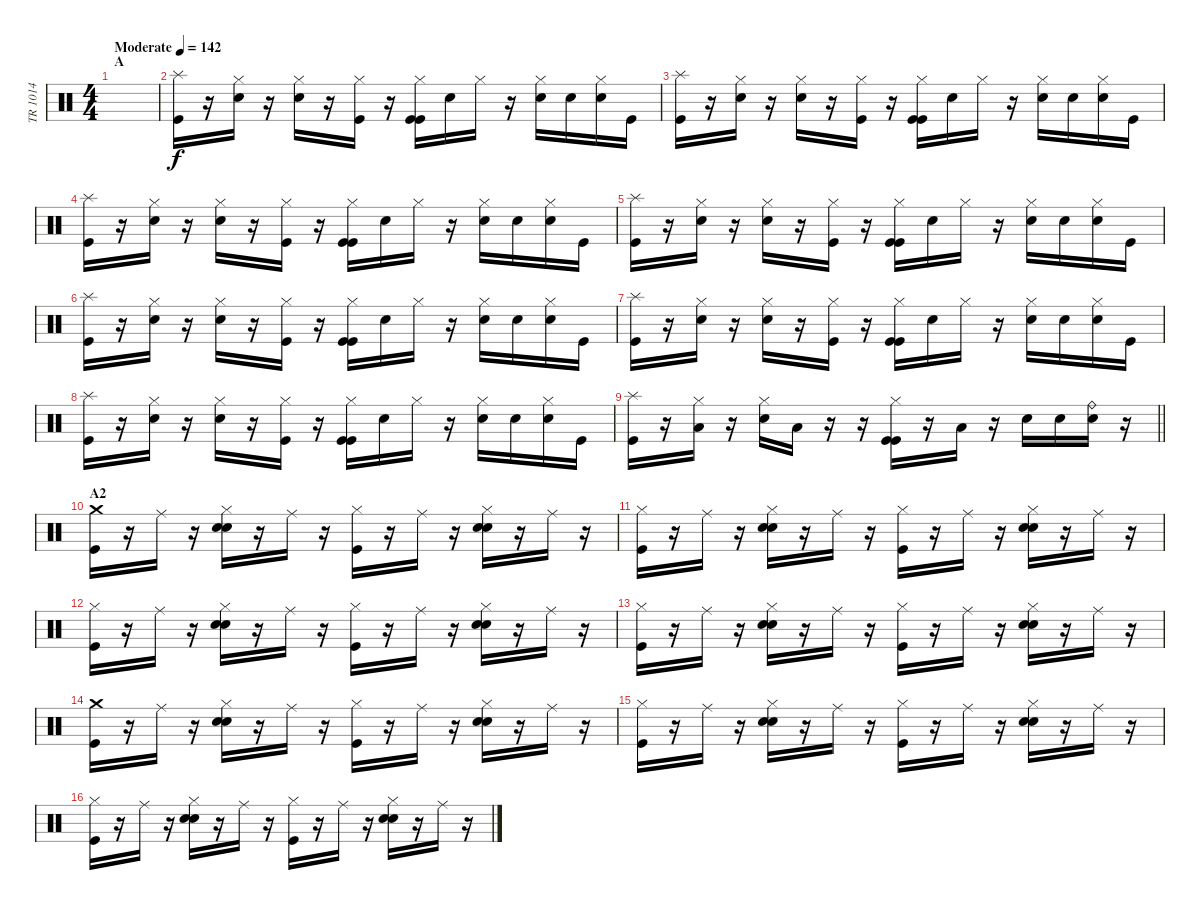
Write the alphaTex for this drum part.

\track ("TR 1014" "TR 1014") {instrument percussion}
\staff {score}
\articulation defaults
\ts (4 4)
\section ("" "A")
\tempo (142 "Moderate")
\clef neutral
\ks c
|
("Splash (hit)" "Kick (hit)").16 r.16 ("Hi-Hat (closed)" "Snare (hit) 2").16 r.16 ("Hi-Hat (closed)" "Snare (hit) 2").16 r.16 ("Hi-Hat (closed)" "Kick (hit)").16 r.16 ("Hi-Hat (closed)" "Kick (hit)" "Kick (hit)").16 "Snare (hit) 2".16 "Hi-Hat (closed)".16 r.16 ("Hi-Hat (closed)" "Snare (hit) 2").16 "Snare (hit) 2".16 ("Hi-Hat (closed)" "Snare (hit) 2").16 "Kick (hit)".16 |
("Splash (hit)" "Kick (hit)").16 r.16 ("Hi-Hat (closed)" "Snare (hit) 2").16 r.16 ("Hi-Hat (closed)" "Snare (hit) 2").16 r.16 ("Hi-Hat (closed)" "Kick (hit)").16 r.16 ("Hi-Hat (closed)" "Kick (hit)" "Kick (hit)").16 "Snare (hit) 2".16 "Hi-Hat (closed)".16 r.16 ("Hi-Hat (closed)" "Snare (hit) 2").16 "Snare (hit) 2".16 ("Hi-Hat (closed)" "Snare (hit) 2").16 "Kick (hit)".16 |
("Splash (hit)" "Kick (hit)").16 r.16 ("Hi-Hat (closed)" "Snare (hit) 2").16 r.16 ("Hi-Hat (closed)" "Snare (hit) 2").16 r.16 ("Hi-Hat (closed)" "Kick (hit)").16 r.16 ("Hi-Hat (closed)" "Kick (hit)" "Kick (hit)").16 "Snare (hit) 2".16 "Hi-Hat (closed)".16 r.16 ("Hi-Hat (closed)" "Snare (hit) 2").16 "Snare (hit) 2".16 ("Hi-Hat (closed)" "Snare (hit) 2").16 "Kick (hit)".16 |
("Splash (hit)" "Kick (hit)").16 r.16 ("Hi-Hat (closed)" "Snare (hit) 2").16 r.16 ("Hi-Hat (closed)" "Snare (hit) 2").16 r.16 ("Hi-Hat (closed)" "Kick (hit)").16 r.16 ("Hi-Hat (closed)" "Kick (hit)" "Kick (hit)").16 "Snare (hit) 2".16 "Hi-Hat (closed)".16 r.16 ("Hi-Hat (closed)" "Snare (hit) 2").16 "Snare (hit) 2".16 ("Hi-Hat (closed)" "Snare (hit) 2").16 "Kick (hit)".16 |
("Splash (hit)" "Kick (hit)").16 r.16 ("Hi-Hat (closed)" "Snare (hit) 2").16 r.16 ("Hi-Hat (closed)" "Snare (hit) 2").16 r.16 ("Hi-Hat (closed)" "Kick (hit)").16 r.16 ("Hi-Hat (closed)" "Kick (hit)" "Kick (hit)").16 "Snare (hit) 2".16 "Hi-Hat (closed)".16 r.16 ("Hi-Hat (closed)" "Snare (hit) 2").16 "Snare (hit) 2".16 ("Hi-Hat (closed)" "Snare (hit) 2").16 "Kick (hit)".16 |
("Splash (hit)" "Kick (hit)").16 r.16 ("Hi-Hat (closed)" "Snare (hit) 2").16 r.16 ("Hi-Hat (closed)" "Snare (hit) 2").16 r.16 ("Hi-Hat (closed)" "Kick (hit)").16 r.16 ("Hi-Hat (closed)" "Kick (hit)" "Kick (hit)").16 "Snare (hit) 2".16 "Hi-Hat (closed)".16 r.16 ("Hi-Hat (closed)" "Snare (hit) 2").16 "Snare (hit) 2".16 ("Hi-Hat (closed)" "Snare (hit) 2").16 "Kick (hit)".16 |
("Splash (hit)" "Kick (hit)").16 r.16 ("Hi-Hat (closed)" "Snare (hit) 2").16 r.16 ("Hi-Hat (closed)" "Snare (hit) 2").16 r.16 ("Hi-Hat (closed)" "Kick (hit)").16 r.16 ("Hi-Hat (closed)" "Kick (hit)" "Kick (hit)").16 "Snare (hit) 2".16 "Hi-Hat (closed)".16 r.16 ("Hi-Hat (closed)" "Snare (hit) 2").16 "Snare (hit) 2".16 ("Hi-Hat (closed)" "Snare (hit) 2").16 "Kick (hit)".16 |
\barLineRight lightlight
("Splash (hit)" "Kick (hit)").16 r.16 ("Hi-Hat (closed)" "Low Tom (hit)").16 r.16 ("Hi-Hat (closed)" "Snare (hit) 2").16 "Low Tom (hit)".16 r.16 r.16 ("Hi-Hat (closed)" "Kick (hit)" "Kick (hit)").16 r.16 "Low Tom (hit)".16 r.16 "Snare (hit) 2".16 "Snare (hit) 2".16 ("Ride (bell)" "Snare (hit) 2").16 r.16 |
\section ("" "A2")
("Crash medium (hit)" "Kick (hit)").16{dy f} r.16 "Ride (middle)".16 r.16 ("Hi-Hat (closed)" "Electric Snare (hit)" "Snare (hit) 2").16 r.16 "Ride (middle)".16 r.16 ("Hi-Hat (closed)" "Kick (hit)").16 r.16 "Ride (middle)".16 r.16 ("Hi-Hat (closed)" "Electric Snare (hit)" "Snare (hit) 2").16 r.16 "Ride (middle)".16 r.16 |
("Hi-Hat (closed)" "Kick (hit)").16 r.16 "Ride (middle)".16 r.16 ("Hi-Hat (closed)" "Electric Snare (hit)" "Snare (hit) 2").16 r.16 "Ride (middle)".16 r.16 ("Hi-Hat (closed)" "Kick (hit)").16 r.16 "Ride (middle)".16 r.16 ("Hi-Hat (closed)" "Electric Snare (hit)" "Snare (hit) 2").16 r.16 "Ride (middle)".16 r.16 |
("Hi-Hat (closed)" "Kick (hit)").16 r.16 "Ride (middle)".16 r.16 ("Hi-Hat (closed)" "Electric Snare (hit)" "Snare (hit) 2").16 r.16 "Ride (middle)".16 r.16 ("Hi-Hat (closed)" "Kick (hit)").16 r.16 "Ride (middle)".16 r.16 ("Hi-Hat (closed)" "Electric Snare (hit)" "Snare (hit) 2").16 r.16 "Ride (middle)".16 r.16 |
("Hi-Hat (closed)" "Kick (hit)").16 r.16 "Ride (middle)".16 r.16 ("Hi-Hat (closed)" "Electric Snare (hit)" "Snare (hit) 2").16 r.16 "Ride (middle)".16 r.16 ("Hi-Hat (closed)" "Kick (hit)").16 r.16 "Ride (middle)".16 r.16 ("Hi-Hat (closed)" "Electric Snare (hit)" "Snare (hit) 2").16 r.16 "Ride (middle)".16 r.16 |
("Crash medium (hit)" "Kick (hit)").16 r.16 "Ride (middle)".16 r.16 ("Hi-Hat (closed)" "Electric Snare (hit)" "Snare (hit) 2").16 r.16 "Ride (middle)".16 r.16 ("Hi-Hat (closed)" "Kick (hit)").16 r.16 "Ride (middle)".16 r.16 ("Hi-Hat (closed)" "Electric Snare (hit)" "Snare (hit) 2").16 r.16 "Ride (middle)".16 r.16 |
("Hi-Hat (closed)" "Kick (hit)").16 r.16 "Ride (middle)".16 r.16 ("Hi-Hat (closed)" "Electric Snare (hit)" "Snare (hit) 2").16 r.16 "Ride (middle)".16 r.16 ("Hi-Hat (closed)" "Kick (hit)").16 r.16 "Ride (middle)".16 r.16 ("Hi-Hat (closed)" "Electric Snare (hit)" "Snare (hit) 2").16 r.16 "Ride (middle)".16 r.16 |
("Hi-Hat (closed)" "Kick (hit)").16 r.16 "Ride (middle)".16 r.16 ("Hi-Hat (closed)" "Electric Snare (hit)" "Snare (hit) 2").16 r.16 "Ride (middle)".16 r.16 ("Hi-Hat (closed)" "Kick (hit)").16 r.16 "Ride (middle)".16 r.16 ("Hi-Hat (closed)" "Electric Snare (hit)" "Snare (hit) 2").16 r.16 "Ride (middle)".16 r.16
